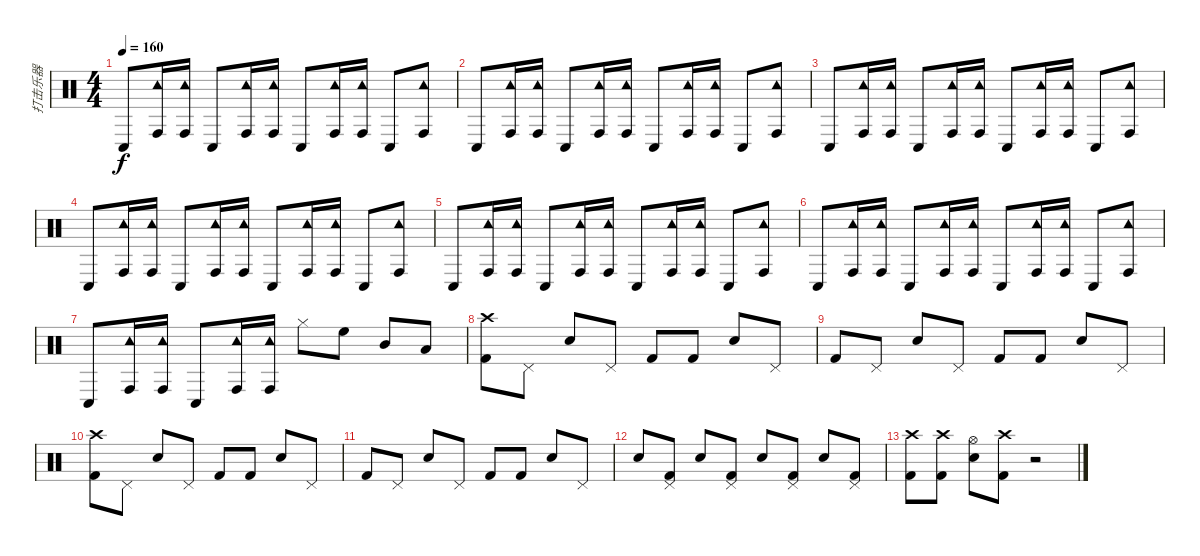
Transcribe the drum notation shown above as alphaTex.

\track ("打击乐器" "打击乐器") {instrument percussion}
\staff {score}
\articulation defaults
\ts (4 4)
\tempo 160
\clef neutral
\ks c "Conga low (hit)".8{dy f}
("Tambourine (hit)" "Conga high (hit)").16 ("Tambourine (hit)" "Conga high (hit)").16 "Conga low (hit)".8 ("Tambourine (hit)" "Conga high (hit)").16 ("Tambourine (hit)" "Conga high (hit)").16 "Conga low (hit)".8 ("Tambourine (hit)" "Conga high (hit)").16 ("Tambourine (hit)" "Conga high (hit)").16 "Conga low (hit)".8 ("Tambourine (hit)" "Conga high (hit)").8 |
"Conga low (hit)".8 ("Tambourine (hit)" "Conga high (hit)").16 ("Tambourine (hit)" "Conga high (hit)").16 "Conga low (hit)".8 ("Tambourine (hit)" "Conga high (hit)").16 ("Tambourine (hit)" "Conga high (hit)").16 "Conga low (hit)".8 ("Tambourine (hit)" "Conga high (hit)").16 ("Tambourine (hit)" "Conga high (hit)").16 "Conga low (hit)".8 ("Tambourine (hit)" "Conga high (hit)").8 |
"Conga low (hit)".8 ("Tambourine (hit)" "Conga high (hit)").16 ("Tambourine (hit)" "Conga high (hit)").16 "Conga low (hit)".8 ("Tambourine (hit)" "Conga high (hit)").16 ("Tambourine (hit)" "Conga high (hit)").16 "Conga low (hit)".8 ("Tambourine (hit)" "Conga high (hit)").16 ("Tambourine (hit)" "Conga high (hit)").16 "Conga low (hit)".8 ("Tambourine (hit)" "Conga high (hit)").8 |
"Conga low (hit)".8 ("Tambourine (hit)" "Conga high (hit)").16 ("Tambourine (hit)" "Conga high (hit)").16 "Conga low (hit)".8 ("Tambourine (hit)" "Conga high (hit)").16 ("Tambourine (hit)" "Conga high (hit)").16 "Conga low (hit)".8 ("Tambourine (hit)" "Conga high (hit)").16 ("Tambourine (hit)" "Conga high (hit)").16 "Conga low (hit)".8 ("Tambourine (hit)" "Conga high (hit)").8 |
"Conga low (hit)".8 ("Tambourine (hit)" "Conga high (hit)").16 ("Tambourine (hit)" "Conga high (hit)").16 "Conga low (hit)".8 ("Tambourine (hit)" "Conga high (hit)").16 ("Tambourine (hit)" "Conga high (hit)").16 "Conga low (hit)".8 ("Tambourine (hit)" "Conga high (hit)").16 ("Tambourine (hit)" "Conga high (hit)").16 "Conga low (hit)".8 ("Tambourine (hit)" "Conga high (hit)").8 |
"Conga low (hit)".8 ("Tambourine (hit)" "Conga high (hit)").16 ("Tambourine (hit)" "Conga high (hit)").16 "Conga low (hit)".8 ("Tambourine (hit)" "Conga high (hit)").16 ("Tambourine (hit)" "Conga high (hit)").16 "Conga low (hit)".8 ("Tambourine (hit)" "Conga high (hit)").16 ("Tambourine (hit)" "Conga high (hit)").16 "Conga low (hit)".8 ("Tambourine (hit)" "Conga high (hit)").8 |
"Conga low (hit)".8 ("Tambourine (hit)" "Conga high (hit)").16 ("Tambourine (hit)" "Conga high (hit)").16 "Conga low (hit)".8 ("Tambourine (hit)" "Conga high (hit)").16 ("Tambourine (hit)" "Conga high (hit)").16 "Hi-Hat (closed)".8 "High Floor Tom (hit)".8 "Mid Tom (hit)".8 "Low Tom (hit)".8 |
("Crash high (hit)" "Kick (hit) 2").8 "Pedal Hi-Hat (hit)".8 "Snare (hit) 2".8 "Pedal Hi-Hat (hit)".8 "Kick (hit) 2".8 "Kick (hit) 2".8 "Snare (hit) 2".8 "Pedal Hi-Hat (hit)".8 |
"Kick (hit) 2".8 "Pedal Hi-Hat (hit)".8 "Snare (hit) 2".8 "Pedal Hi-Hat (hit)".8 "Kick (hit) 2".8 "Kick (hit) 2".8 "Snare (hit) 2".8 "Pedal Hi-Hat (hit)".8 |
("Crash high (hit)" "Kick (hit) 2").8 "Pedal Hi-Hat (hit)".8 "Snare (hit) 2".8 "Pedal Hi-Hat (hit)".8 "Kick (hit) 2".8 "Kick (hit) 2".8 "Snare (hit) 2".8 "Pedal Hi-Hat (hit)".8 |
"Kick (hit) 2".8 "Pedal Hi-Hat (hit)".8 "Snare (hit) 2".8 "Pedal Hi-Hat (hit)".8 "Kick (hit) 2".8 "Kick (hit) 2".8 "Snare (hit) 2".8 "Pedal Hi-Hat (hit)".8 |
"Snare (hit) 2".8 ("Pedal Hi-Hat (hit)" "Kick (hit) 2").8 "Snare (hit) 2".8 ("Pedal Hi-Hat (hit)" "Kick (hit) 2").8 "Snare (hit) 2".8 ("Pedal Hi-Hat (hit)" "Kick (hit) 2").8 "Snare (hit) 2".8 ("Pedal Hi-Hat (hit)" "Kick (hit) 2").8 |
("Crash high (hit)" "Kick (hit) 2").8 ("Crash high (hit)" "Kick (hit) 2").8 ("Hi-Hat (open)" "Snare (hit) 2").8 ("Crash high (hit)" "Kick (hit) 2").8 r.2
